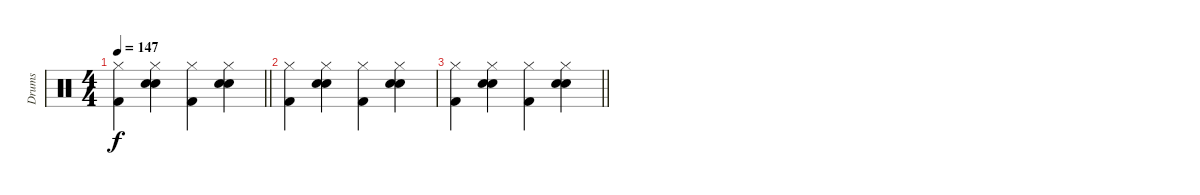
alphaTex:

\track ("Drums" "Drums") {instrument percussion}
\staff {score}
\articulation defaults
\ts (4 4)
\tempo 147
\clef neutral
\barLineRight lightlight
\ks c
("Hi-Hat (closed)" "Kick (hit) 2").4{dy f} ("Hi-Hat (closed)" "Electric Snare (hit)" "Hand Clap (hit)").4 ("Hi-Hat (closed)" "Kick (hit) 2").4 ("Hi-Hat (closed)" "Electric Snare (hit)" "Hand Clap (hit)").4 |
("Hi-Hat (closed)" "Kick (hit) 2").4 ("Hi-Hat (closed)" "Electric Snare (hit)" "Hand Clap (hit)").4 ("Hi-Hat (closed)" "Kick (hit) 2").4 ("Hi-Hat (closed)" "Electric Snare (hit)" "Hand Clap (hit)").4 |
\barLineRight lightlight
("Hi-Hat (closed)" "Kick (hit) 2").4 ("Hi-Hat (closed)" "Electric Snare (hit)" "Hand Clap (hit)").4 ("Hi-Hat (closed)" "Kick (hit) 2").4 ("Hi-Hat (closed)" "Electric Snare (hit)" "Hand Clap (hit)").4
